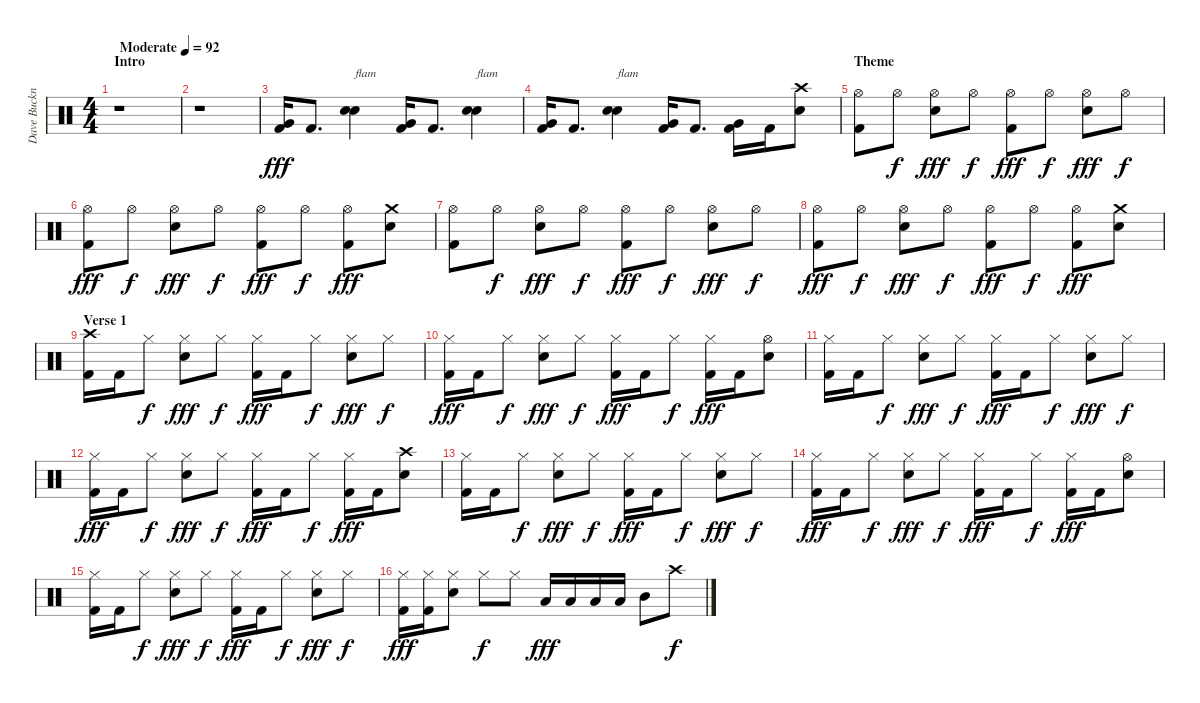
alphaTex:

\track ("Dave Buckner" "Dave Buckn") {instrument percussion}
\staff {score}
\articulation defaults
\ts (4 4)
\section ("" "Intro")
\tempo (92 "Moderate")
\clef neutral
\ks c
r.1{dy fff} |
r.1 |
("Very Low Tom (hit)" "Kick (hit) 2").16 "Kick (hit) 2".8{d} ("Electric Snare (hit)" "Electric Snare (hit)").4{bd 120 txt "flam"} ("Very Low Tom (hit)" "Kick (hit) 2").16 "Kick (hit) 2".8{d} ("Electric Snare (hit)" "Electric Snare (hit)").4{bd 120 txt "flam"} |
("Very Low Tom (hit)" "Kick (hit) 2").16 "Kick (hit) 2".8{d} ("Electric Snare (hit)" "Electric Snare (hit)").4{bd 120 txt "flam"} ("Very Low Tom (hit)" "Kick (hit) 2").16 "Kick (hit) 2".8{d} ("Very Low Tom (hit)" "Kick (hit) 2").16 "Kick (hit) 2".16 ("Crash high (hit)" "Electric Snare (hit)").8 |
\section ("" "Theme")
("Hi-Hat (open)" "Kick (hit) 2").8 "Hi-Hat (open)".8{dy f} ("Hi-Hat (open)" "Electric Snare (hit)").8{dy fff} "Hi-Hat (open)".8{dy f} ("Hi-Hat (open)" "Kick (hit) 2").8{dy fff} "Hi-Hat (open)".8{dy f} ("Hi-Hat (open)" "Electric Snare (hit)").8{dy fff} "Hi-Hat (open)".8{dy f} |
("Hi-Hat (open)" "Kick (hit) 2").8{dy fff} "Hi-Hat (open)".8{dy f} ("Hi-Hat (open)" "Electric Snare (hit)").8{dy fff} "Hi-Hat (open)".8{dy f} ("Hi-Hat (open)" "Kick (hit) 2").8{dy fff} "Hi-Hat (open)".8{dy f} ("Hi-Hat (open)" "Kick (hit) 2").8{dy fff} ("Crash medium (hit)" "Electric Snare (hit)").8 |
("Hi-Hat (open)" "Kick (hit) 2").8 "Hi-Hat (open)".8{dy f} ("Hi-Hat (open)" "Electric Snare (hit)").8{dy fff} "Hi-Hat (open)".8{dy f} ("Hi-Hat (open)" "Kick (hit) 2").8{dy fff} "Hi-Hat (open)".8{dy f} ("Hi-Hat (open)" "Electric Snare (hit)").8{dy fff} "Hi-Hat (open)".8{dy f} |
("Hi-Hat (open)" "Kick (hit) 2").8{dy fff} "Hi-Hat (open)".8{dy f} ("Hi-Hat (open)" "Electric Snare (hit)").8{dy fff} "Hi-Hat (open)".8{dy f} ("Hi-Hat (open)" "Kick (hit) 2").8{dy fff} "Hi-Hat (open)".8{dy f} ("Hi-Hat (open)" "Kick (hit) 2").8{dy fff} ("Crash medium (hit)" "Electric Snare (hit)").8 |
\section ("" "Verse 1")
("Crash high (hit)" "Kick (hit) 2").16 "Kick (hit) 2".16 "Hi-Hat (closed)".8{dy f} ("Hi-Hat (closed)" "Electric Snare (hit)").8{dy fff} "Hi-Hat (closed)".8{dy f} ("Hi-Hat (closed)" "Kick (hit) 2").16{dy fff} "Kick (hit) 2".16 "Hi-Hat (closed)".8{dy f} ("Hi-Hat (closed)" "Electric Snare (hit)").8{dy fff} "Hi-Hat (closed)".8{dy f} |
("Hi-Hat (closed)" "Kick (hit) 2").16{dy fff} "Kick (hit) 2".16 "Hi-Hat (closed)".8{dy f} ("Hi-Hat (closed)" "Electric Snare (hit)").8{dy fff} "Hi-Hat (closed)".8{dy f} ("Hi-Hat (closed)" "Kick (hit) 2").16{dy fff} "Kick (hit) 2".16 "Hi-Hat (closed)".8{dy f} ("Hi-Hat (closed)" "Kick (hit) 2").16{dy fff} "Kick (hit) 2".16 ("Hi-Hat (open)" "Electric Snare (hit)").8 |
("Hi-Hat (closed)" "Kick (hit) 2").16 "Kick (hit) 2".16 "Hi-Hat (closed)".8{dy f} ("Hi-Hat (closed)" "Electric Snare (hit)").8{dy fff} "Hi-Hat (closed)".8{dy f} ("Hi-Hat (closed)" "Kick (hit) 2").16{dy fff} "Kick (hit) 2".16 "Hi-Hat (closed)".8{dy f} ("Hi-Hat (closed)" "Electric Snare (hit)").8{dy fff} "Hi-Hat (closed)".8{dy f} |
("Hi-Hat (closed)" "Kick (hit) 2").16{dy fff} "Kick (hit) 2".16 "Hi-Hat (closed)".8{dy f} ("Hi-Hat (closed)" "Electric Snare (hit)").8{dy fff} "Hi-Hat (closed)".8{dy f} ("Hi-Hat (closed)" "Kick (hit) 2").16{dy fff} "Kick (hit) 2".16 "Hi-Hat (closed)".8{dy f} ("Hi-Hat (closed)" "Kick (hit) 2").16{dy fff} "Kick (hit) 2".16 ("Crash high (hit)" "Electric Snare (hit)").8 |
("Hi-Hat (closed)" "Kick (hit) 2").16 "Kick (hit) 2".16 "Hi-Hat (closed)".8{dy f} ("Hi-Hat (closed)" "Electric Snare (hit)").8{dy fff} "Hi-Hat (closed)".8{dy f} ("Hi-Hat (closed)" "Kick (hit) 2").16{dy fff} "Kick (hit) 2".16 "Hi-Hat (closed)".8{dy f} ("Hi-Hat (closed)" "Electric Snare (hit)").8{dy fff} "Hi-Hat (closed)".8{dy f} |
("Hi-Hat (closed)" "Kick (hit) 2").16{dy fff} "Kick (hit) 2".16 "Hi-Hat (closed)".8{dy f} ("Hi-Hat (closed)" "Electric Snare (hit)").8{dy fff} "Hi-Hat (closed)".8{dy f} ("Hi-Hat (closed)" "Kick (hit) 2").16{dy fff} "Kick (hit) 2".16 "Hi-Hat (closed)".8{dy f} ("Hi-Hat (closed)" "Kick (hit) 2").16{dy fff} "Kick (hit) 2".16 ("Hi-Hat (open)" "Electric Snare (hit)").8 |
("Hi-Hat (closed)" "Kick (hit) 2").16 "Kick (hit) 2".16 "Hi-Hat (closed)".8{dy f} ("Hi-Hat (closed)" "Electric Snare (hit)").8{dy fff} "Hi-Hat (closed)".8{dy f} ("Hi-Hat (closed)" "Kick (hit) 2").16{dy fff} "Kick (hit) 2".16 "Hi-Hat (closed)".8{dy f} ("Hi-Hat (closed)" "Electric Snare (hit)").8{dy fff} "Hi-Hat (closed)".8{dy f} |
("Hi-Hat (closed)" "Kick (hit) 2").16{dy fff} ("Hi-Hat (closed)" "Kick (hit) 2").16 ("Hi-Hat (closed)" "Electric Snare (hit)").8 "Hi-Hat (closed)".8{dy f} "Hi-Hat (closed)".8 "Low Tom (hit)".16{dy fff} "Low Tom (hit)".16 "Low Tom (hit)".16 "Low Tom (hit)".16 "Mid Tom (hit)".8 "Crash high (hit)".8{dy f}
